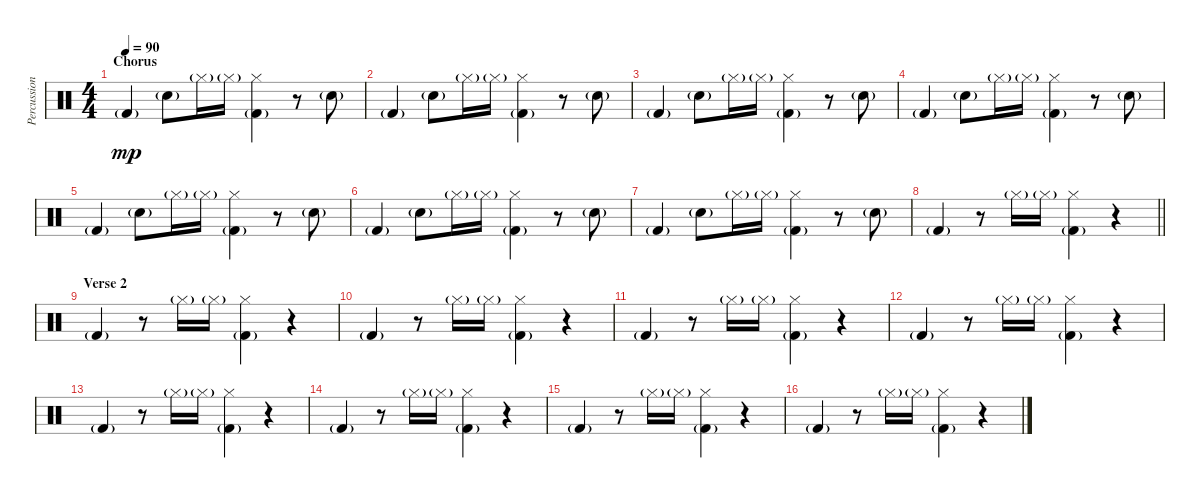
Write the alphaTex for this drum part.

\track ("Percussion" "Percussion") {instrument percussion}
\staff {score}
\articulation defaults
\ts (4 4)
\section ("" "Chorus")
\tempo 90
\clef neutral
\ks c "Kick (hit) 2"{g}.4{dy mp} "Snare (hit) 2"{g}.8 "Hi-Hat (closed)"{g}.16 "Hi-Hat (closed)"{g}.16
("Hi-Hat (closed)" "Kick (hit) 2"{g}).4 r.8 "Hand Clap (hit)"{g}.8 |
"Kick (hit) 2"{g}.4 "Snare (hit) 2"{g}.8 "Hi-Hat (closed)"{g}.16 "Hi-Hat (closed)"{g}.16 ("Hi-Hat (closed)" "Kick (hit) 2"{g}).4 r.8 "Hand Clap (hit)"{g}.8 |
"Kick (hit) 2"{g}.4 "Snare (hit) 2"{g}.8 "Hi-Hat (closed)"{g}.16 "Hi-Hat (closed)"{g}.16 ("Hi-Hat (closed)" "Kick (hit) 2"{g}).4 r.8 "Hand Clap (hit)"{g}.8 |
"Kick (hit) 2"{g}.4 "Snare (hit) 2"{g}.8 "Hi-Hat (closed)"{g}.16 "Hi-Hat (closed)"{g}.16 ("Hi-Hat (closed)" "Kick (hit) 2"{g}).4 r.8 "Hand Clap (hit)"{g}.8 |
"Kick (hit) 2"{g}.4 "Snare (hit) 2"{g}.8 "Hi-Hat (closed)"{g}.16 "Hi-Hat (closed)"{g}.16 ("Hi-Hat (closed)" "Kick (hit) 2"{g}).4 r.8 "Hand Clap (hit)"{g}.8 |
"Kick (hit) 2"{g}.4 "Snare (hit) 2"{g}.8 "Hi-Hat (closed)"{g}.16 "Hi-Hat (closed)"{g}.16 ("Hi-Hat (closed)" "Kick (hit) 2"{g}).4 r.8 "Hand Clap (hit)"{g}.8 |
"Kick (hit) 2"{g}.4 "Snare (hit) 2"{g}.8 "Hi-Hat (closed)"{g}.16 "Hi-Hat (closed)"{g}.16 ("Hi-Hat (closed)" "Kick (hit) 2"{g}).4 r.8 "Hand Clap (hit)"{g}.8 |
\barLineRight lightlight "Kick (hit) 2"{g}.4
r.8 "Hi-Hat (closed)"{g}.16 "Hi-Hat (closed)"{g}.16 ("Hi-Hat (closed)" "Kick (hit) 2"{g}).4 r.4 |
\section ("" "Verse 2")
"Kick (hit) 2"{g}.4 r.8 "Hi-Hat (closed)"{g}.16 "Hi-Hat (closed)"{g}.16 ("Hi-Hat (closed)" "Kick (hit) 2"{g}).4 r.4 |
"Kick (hit) 2"{g}.4 r.8 "Hi-Hat (closed)"{g}.16 "Hi-Hat (closed)"{g}.16 ("Hi-Hat (closed)" "Kick (hit) 2"{g}).4 r.4 |
"Kick (hit) 2"{g}.4 r.8 "Hi-Hat (closed)"{g}.16 "Hi-Hat (closed)"{g}.16 ("Hi-Hat (closed)" "Kick (hit) 2"{g}).4 r.4 |
"Kick (hit) 2"{g}.4 r.8 "Hi-Hat (closed)"{g}.16 "Hi-Hat (closed)"{g}.16 ("Hi-Hat (closed)" "Kick (hit) 2"{g}).4 r.4 |
"Kick (hit) 2"{g}.4 r.8 "Hi-Hat (closed)"{g}.16 "Hi-Hat (closed)"{g}.16 ("Hi-Hat (closed)" "Kick (hit) 2"{g}).4 r.4 |
"Kick (hit) 2"{g}.4 r.8 "Hi-Hat (closed)"{g}.16 "Hi-Hat (closed)"{g}.16 ("Hi-Hat (closed)" "Kick (hit) 2"{g}).4 r.4 |
"Kick (hit) 2"{g}.4 r.8 "Hi-Hat (closed)"{g}.16 "Hi-Hat (closed)"{g}.16 ("Hi-Hat (closed)" "Kick (hit) 2"{g}).4 r.4 |
"Kick (hit) 2"{g}.4 r.8 "Hi-Hat (closed)"{g}.16 "Hi-Hat (closed)"{g}.16 ("Hi-Hat (closed)" "Kick (hit) 2"{g}).4 r.4
